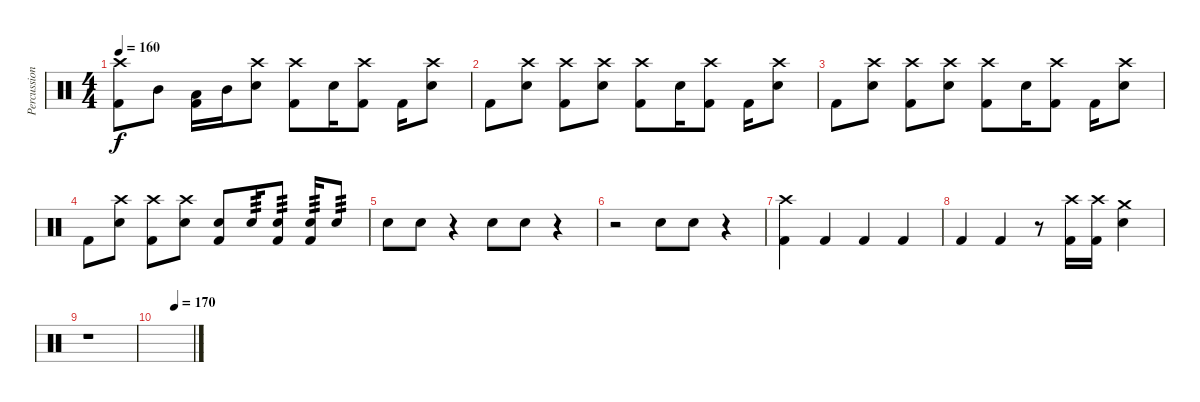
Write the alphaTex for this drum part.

\track ("Percussion" "Percussion") {instrument percussion}
\staff {score}
\articulation defaults
\ts (4 4)
\tempo 160
\clef neutral
\ks c
("Crash high (hit)" "Kick (hit) 2").8{dy f} "Mid Tom (hit)".8 ("Low Tom (hit)" "Kick (hit) 2").16 "Mid Tom (hit)".16 ("Crash high (hit)" "Electric Snare (hit)").8 ("Crash high (hit)" "Kick (hit) 2").8 "Electric Snare (hit)".16 ("Crash high (hit)" "Kick (hit) 2").8 "Kick (hit) 2".16 ("Crash high (hit)" "Electric Snare (hit)").8 |
"Kick (hit) 2".8 ("Crash high (hit)" "Electric Snare (hit)").8 ("Crash high (hit)" "Kick (hit) 2").8 ("Crash high (hit)" "Electric Snare (hit)").8 ("Crash high (hit)" "Kick (hit) 2").8 "Electric Snare (hit)".16 ("Crash high (hit)" "Kick (hit) 2").8 "Kick (hit) 2".16 ("Crash high (hit)" "Electric Snare (hit)").8 |
"Kick (hit) 2".8 ("Crash high (hit)" "Electric Snare (hit)").8 ("Crash high (hit)" "Kick (hit) 2").8 ("Crash high (hit)" "Electric Snare (hit)").8 ("Crash high (hit)" "Kick (hit) 2").8 "Electric Snare (hit)".16 ("Crash high (hit)" "Kick (hit) 2").8 "Kick (hit) 2".16 ("Crash high (hit)" "Electric Snare (hit)").8 |
"Kick (hit) 2".8 ("Crash high (hit)" "Electric Snare (hit)").8 ("Crash high (hit)" "Kick (hit) 2").8 ("Crash high (hit)" "Electric Snare (hit)").8 ("Electric Snare (hit)" "Kick (hit) 2").8 "Electric Snare (hit)".16{tp 3} ("Electric Snare (hit)" "Kick (hit) 2").8{tp 3} ("Electric Snare (hit)" "Kick (hit) 2").16{tp 3} "Electric Snare (hit)".8{tp 3} |
"Electric Snare (hit)".8 "Electric Snare (hit)".8 r.4 "Electric Snare (hit)".8 "Electric Snare (hit)".8 r.4 |
r.2 "Electric Snare (hit)".8 "Electric Snare (hit)".8 r.4 |
("Crash high (hit)" "Kick (hit) 2").4 "Kick (hit) 2".4 "Kick (hit) 2".4 "Kick (hit) 2".4 |
"Kick (hit) 2".4 "Kick (hit) 2".4 r.8 ("Crash high (hit)" "Kick (hit) 2").16 ("Crash high (hit)" "Kick (hit) 2").16 ("Crash medium (hit)" "Electric Snare (hit)").4 |
r.1 |
\tempo (170 0.5)
